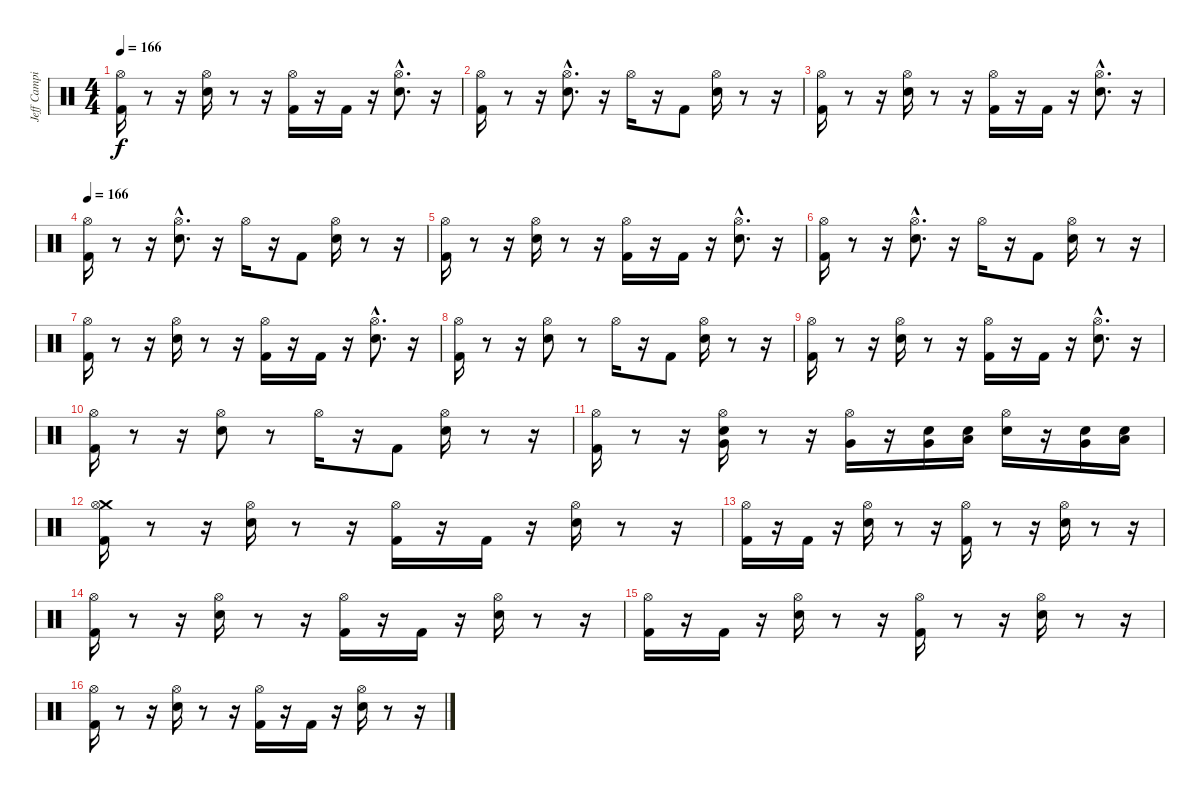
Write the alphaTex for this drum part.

\track ("Jeff Campitelli" "Jeff Campi") {instrument percussion}
\staff {score}
\articulation defaults
\ts (4 4)
\tempo 166
\clef neutral
\ks c
("Kick (hit) 2" "Hi-Hat (open)").16{dy f} r.8 r.16 ("Snare (hit) 2" "Hi-Hat (open)").16 r.8 r.16 ("Kick (hit) 2" "Hi-Hat (open)").16 r.16 "Kick (hit) 2".16 r.16 ("Snare (hit) 2"{hac} "Hi-Hat (open)"{hac}).8{d} r.16 |
("Kick (hit) 2" "Hi-Hat (open)").16 r.8 r.16 ("Hi-Hat (open)"{hac} "Snare (hit) 2"{hac}).8{d} r.16 "Hi-Hat (open)".16 r.16 "Kick (hit) 2".8 ("Snare (hit) 2" "Hi-Hat (open)").16 r.8 r.16 |
("Kick (hit) 2" "Hi-Hat (open)").16 r.8 r.16 ("Snare (hit) 2" "Hi-Hat (open)").16 r.8 r.16 ("Kick (hit) 2" "Hi-Hat (open)").16 r.16 "Kick (hit) 2".16 r.16 ("Snare (hit) 2"{hac} "Hi-Hat (open)"{hac}).8{d} r.16 |
\tempo 166
("Kick (hit) 2" "Hi-Hat (open)").16 r.8 r.16 ("Hi-Hat (open)"{hac} "Snare (hit) 2"{hac}).8{d} r.16 "Hi-Hat (open)".16 r.16 "Kick (hit) 2".8 ("Snare (hit) 2" "Hi-Hat (open)").16 r.8 r.16 |
("Kick (hit) 2" "Hi-Hat (open)").16 r.8 r.16 ("Snare (hit) 2" "Hi-Hat (open)").16 r.8 r.16 ("Kick (hit) 2" "Hi-Hat (open)").16 r.16 "Kick (hit) 2".16 r.16 ("Snare (hit) 2"{hac} "Hi-Hat (open)"{hac}).8{d} r.16 |
("Kick (hit) 2" "Hi-Hat (open)").16 r.8 r.16 ("Hi-Hat (open)"{hac} "Snare (hit) 2"{hac}).8{d} r.16 "Hi-Hat (open)".16 r.16 "Kick (hit) 2".8 ("Snare (hit) 2" "Hi-Hat (open)").16 r.8 r.16 |
("Kick (hit) 2" "Hi-Hat (open)").16 r.8 r.16 ("Snare (hit) 2" "Hi-Hat (open)").16 r.8 r.16 ("Kick (hit) 2" "Hi-Hat (open)").16 r.16 "Kick (hit) 2".16 r.16 ("Snare (hit) 2"{hac} "Hi-Hat (open)"{hac}).8{d} r.16 |
("Kick (hit) 2" "Hi-Hat (open)").16 r.8 r.16 ("Hi-Hat (open)" "Snare (hit) 2").8 r.8 "Hi-Hat (open)".16 r.16 "Kick (hit) 2".8 ("Snare (hit) 2" "Hi-Hat (open)").16 r.8 r.16 |
("Kick (hit) 2" "Hi-Hat (open)").16 r.8 r.16 ("Snare (hit) 2" "Hi-Hat (open)").16 r.8 r.16 ("Kick (hit) 2" "Hi-Hat (open)").16 r.16 "Kick (hit) 2".16 r.16 ("Snare (hit) 2"{hac} "Hi-Hat (open)"{hac}).8{d} r.16 |
("Kick (hit) 2" "Hi-Hat (open)").16 r.8 r.16 ("Hi-Hat (open)" "Snare (hit) 2").8 r.8 "Hi-Hat (open)".16 r.16 "Kick (hit) 2".8 ("Snare (hit) 2" "Hi-Hat (open)").16 r.8 r.16 |
("Kick (hit) 2" "Hi-Hat (open)").16 r.8 r.16 ("Snare (hit) 2" "Hi-Hat (open)" "Very Low Tom (hit)").16 r.8 r.16 ("Very Low Tom (hit)" "Hi-Hat (open)").16 r.16 ("Very Low Tom (hit)" "Snare (hit) 2").16 ("Low Floor Tom (hit)" "Snare (hit) 2").16 ("Snare (hit) 2" "Hi-Hat (open)").16 r.16 ("Very Low Tom (hit)" "Snare (hit) 2").16 ("Low Floor Tom (hit)" "Snare (hit) 2").16 |
("Crash medium (hit)" "Hi-Hat (open)" "Kick (hit) 2").16 r.8 r.16 ("Snare (hit) 2" "Hi-Hat (open)").16 r.8 r.16 ("Kick (hit) 2" "Hi-Hat (open)").16 r.16 "Kick (hit) 2".16 r.16 ("Hi-Hat (open)" "Snare (hit) 2").16 r.8 r.16 |
("Hi-Hat (open)" "Kick (hit) 2").16 r.16 "Kick (hit) 2".16 r.16 ("Snare (hit) 2" "Hi-Hat (open)").16 r.8 r.16 ("Hi-Hat (open)" "Kick (hit) 2").16 r.8 r.16 ("Hi-Hat (open)" "Snare (hit) 2").16 r.8 r.16 |
("Hi-Hat (open)" "Kick (hit) 2").16 r.8 r.16 ("Snare (hit) 2" "Hi-Hat (open)").16 r.8 r.16 ("Kick (hit) 2" "Hi-Hat (open)").16 r.16 "Kick (hit) 2".16 r.16 ("Hi-Hat (open)" "Snare (hit) 2").16 r.8 r.16 |
("Hi-Hat (open)" "Kick (hit) 2").16 r.16 "Kick (hit) 2".16 r.16 ("Snare (hit) 2" "Hi-Hat (open)").16 r.8 r.16 ("Hi-Hat (open)" "Kick (hit) 2").16 r.8 r.16 ("Hi-Hat (open)" "Snare (hit) 2").16 r.8 r.16 |
("Hi-Hat (open)" "Kick (hit) 2").16 r.8 r.16 ("Snare (hit) 2" "Hi-Hat (open)").16 r.8 r.16 ("Kick (hit) 2" "Hi-Hat (open)").16 r.16 "Kick (hit) 2".16 r.16 ("Hi-Hat (open)" "Snare (hit) 2").16 r.8 r.16
